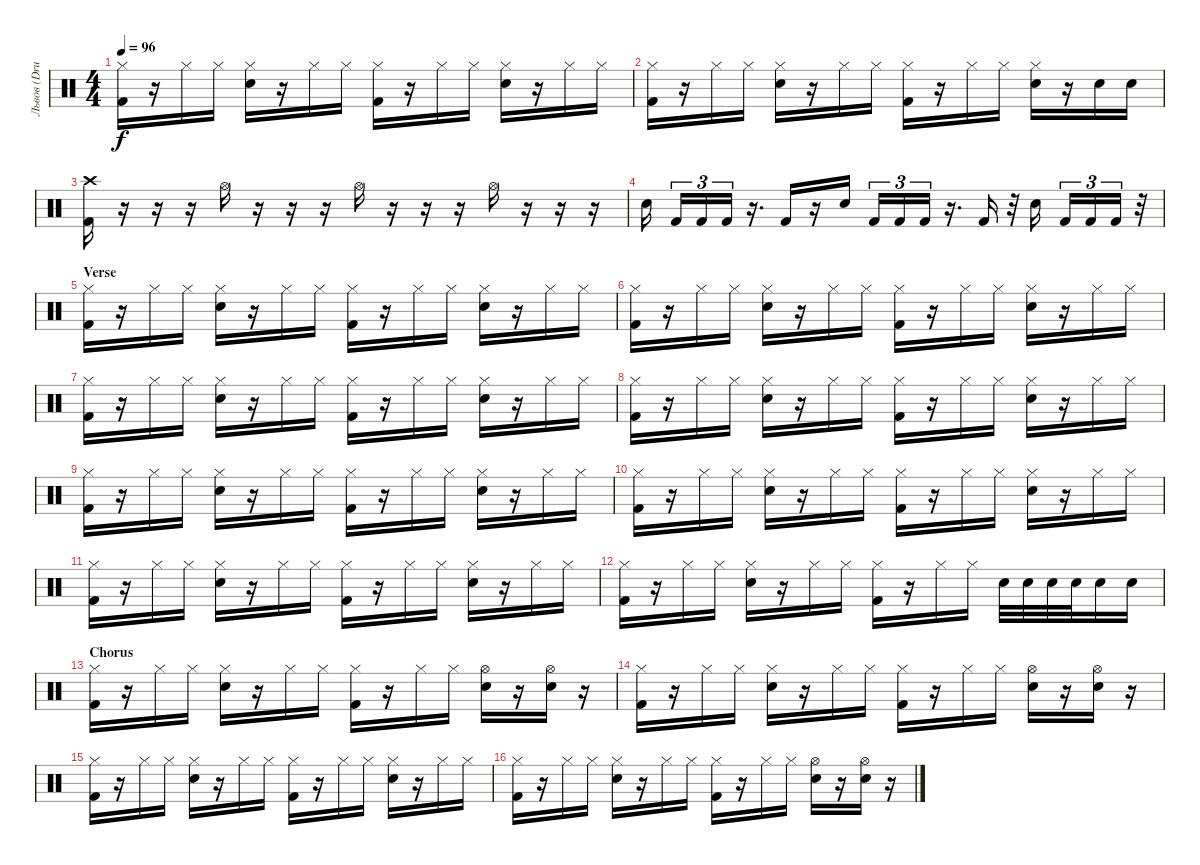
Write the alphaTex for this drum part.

\track ("Львов (Drums)" "Львов (Dru") {instrument percussion}
\staff {score}
\articulation defaults
\ts (4 4)
\tempo 96
\clef neutral
\ks c
("Kick (hit) 2" "Hi-Hat (closed)").16{dy f} r.16 "Hi-Hat (closed)".16 "Hi-Hat (closed)".16 ("Electric Snare (hit)" "Hi-Hat (closed)").16 r.16 "Hi-Hat (closed)".16 "Hi-Hat (closed)".16 ("Kick (hit) 2" "Hi-Hat (closed)").16 r.16 "Hi-Hat (closed)".16 "Hi-Hat (closed)".16 ("Electric Snare (hit)" "Hi-Hat (closed)").16 r.16 "Hi-Hat (closed)".16 "Hi-Hat (closed)".16 |
("Kick (hit) 2" "Hi-Hat (closed)").16 r.16 "Hi-Hat (closed)".16 "Hi-Hat (closed)".16 ("Electric Snare (hit)" "Hi-Hat (closed)").16 r.16 "Hi-Hat (closed)".16 "Hi-Hat (closed)".16 ("Kick (hit) 2" "Hi-Hat (closed)").16 r.16 "Hi-Hat (closed)".16 "Hi-Hat (closed)".16 ("Electric Snare (hit)" "Hi-Hat (closed)").16 r.16 "Electric Snare (hit)".16 "Electric Snare (hit)".16 |
("Kick (hit) 2" "Crash high (hit)").16 r.16 r.16 r.16 "Hi-Hat (open)".16 r.16 r.16 r.16 "Hi-Hat (open)".16 r.16 r.16 r.16 "Hi-Hat (open)".16 r.16 r.16 r.16 |
"Electric Snare (hit)".16 "Kick (hit) 2".16{tu (3 2)} "Kick (hit) 2".16{tu (3 2)} "Kick (hit) 2".16{tu (3 2)} r.16{d} "Kick (hit) 2".16 r.16 "Electric Snare (hit)".16 "Kick (hit) 2".16{tu (3 2)} "Kick (hit) 2".16{tu (3 2)} "Kick (hit) 2".16{tu (3 2)} r.16{d} "Kick (hit) 2".16 r.32 "Electric Snare (hit)".16 "Kick (hit) 2".16{tu (3 2)} "Kick (hit) 2".16{tu (3 2)} "Kick (hit) 2".16{tu (3 2)} r.32 |
\section ("" "Verse")
("Kick (hit) 2" "Hi-Hat (closed)").16 r.16 "Hi-Hat (closed)".16 "Hi-Hat (closed)".16 ("Electric Snare (hit)" "Hi-Hat (closed)").16 r.16 "Hi-Hat (closed)".16 "Hi-Hat (closed)".16 ("Kick (hit) 2" "Hi-Hat (closed)").16 r.16 "Hi-Hat (closed)".16 "Hi-Hat (closed)".16 ("Electric Snare (hit)" "Hi-Hat (closed)").16 r.16 "Hi-Hat (closed)".16 "Hi-Hat (closed)".16 |
("Kick (hit) 2" "Hi-Hat (closed)").16 r.16 "Hi-Hat (closed)".16 "Hi-Hat (closed)".16 ("Electric Snare (hit)" "Hi-Hat (closed)").16 r.16 "Hi-Hat (closed)".16 "Hi-Hat (closed)".16 ("Kick (hit) 2" "Hi-Hat (closed)").16 r.16 "Hi-Hat (closed)".16 "Hi-Hat (closed)".16 ("Electric Snare (hit)" "Hi-Hat (closed)").16 r.16 "Hi-Hat (closed)".16 "Hi-Hat (closed)".16 |
("Kick (hit) 2" "Hi-Hat (closed)").16 r.16 "Hi-Hat (closed)".16 "Hi-Hat (closed)".16 ("Electric Snare (hit)" "Hi-Hat (closed)").16 r.16 "Hi-Hat (closed)".16 "Hi-Hat (closed)".16 ("Kick (hit) 2" "Hi-Hat (closed)").16 r.16 "Hi-Hat (closed)".16 "Hi-Hat (closed)".16 ("Electric Snare (hit)" "Hi-Hat (closed)").16 r.16 "Hi-Hat (closed)".16 "Hi-Hat (closed)".16 |
("Kick (hit) 2" "Hi-Hat (closed)").16 r.16 "Hi-Hat (closed)".16 "Hi-Hat (closed)".16 ("Electric Snare (hit)" "Hi-Hat (closed)").16 r.16 "Hi-Hat (closed)".16 "Hi-Hat (closed)".16 ("Kick (hit) 2" "Hi-Hat (closed)").16 r.16 "Hi-Hat (closed)".16 "Hi-Hat (closed)".16 ("Electric Snare (hit)" "Hi-Hat (closed)").16 r.16 "Hi-Hat (closed)".16 "Hi-Hat (closed)".16 |
("Kick (hit) 2" "Hi-Hat (closed)").16 r.16 "Hi-Hat (closed)".16 "Hi-Hat (closed)".16 ("Electric Snare (hit)" "Hi-Hat (closed)").16 r.16 "Hi-Hat (closed)".16 "Hi-Hat (closed)".16 ("Kick (hit) 2" "Hi-Hat (closed)").16 r.16 "Hi-Hat (closed)".16 "Hi-Hat (closed)".16 ("Electric Snare (hit)" "Hi-Hat (closed)").16 r.16 "Hi-Hat (closed)".16 "Hi-Hat (closed)".16 |
("Kick (hit) 2" "Hi-Hat (closed)").16 r.16 "Hi-Hat (closed)".16 "Hi-Hat (closed)".16 ("Electric Snare (hit)" "Hi-Hat (closed)").16 r.16 "Hi-Hat (closed)".16 "Hi-Hat (closed)".16 ("Kick (hit) 2" "Hi-Hat (closed)").16 r.16 "Hi-Hat (closed)".16 "Hi-Hat (closed)".16 ("Electric Snare (hit)" "Hi-Hat (closed)").16 r.16 "Hi-Hat (closed)".16 "Hi-Hat (closed)".16 |
("Kick (hit) 2" "Hi-Hat (closed)").16 r.16 "Hi-Hat (closed)".16 "Hi-Hat (closed)".16 ("Electric Snare (hit)" "Hi-Hat (closed)").16 r.16 "Hi-Hat (closed)".16 "Hi-Hat (closed)".16 ("Kick (hit) 2" "Hi-Hat (closed)").16 r.16 "Hi-Hat (closed)".16 "Hi-Hat (closed)".16 ("Electric Snare (hit)" "Hi-Hat (closed)").16 r.16 "Hi-Hat (closed)".16 "Hi-Hat (closed)".16 |
("Kick (hit) 2" "Hi-Hat (closed)").16 r.16 "Hi-Hat (closed)".16 "Hi-Hat (closed)".16 ("Electric Snare (hit)" "Hi-Hat (closed)").16 r.16 "Hi-Hat (closed)".16 "Hi-Hat (closed)".16 ("Kick (hit) 2" "Hi-Hat (closed)").16 r.16 "Hi-Hat (closed)".16 "Hi-Hat (closed)".16 "Electric Snare (hit)".32 "Electric Snare (hit)".32 "Electric Snare (hit)".32 "Electric Snare (hit)".32 "Electric Snare (hit)".16 "Electric Snare (hit)".16 |
\section ("" "Chorus")
("Kick (hit) 2" "Hi-Hat (closed)").16 r.16 "Hi-Hat (closed)".16 "Hi-Hat (closed)".16 ("Electric Snare (hit)" "Hi-Hat (closed)").16 r.16 "Hi-Hat (closed)".16 "Hi-Hat (closed)".16 ("Kick (hit) 2" "Hi-Hat (closed)").16 r.16 "Hi-Hat (closed)".16 "Hi-Hat (closed)".16 ("Electric Snare (hit)" "Hi-Hat (open)").16 r.16 ("Electric Snare (hit)" "Hi-Hat (open)").16 r.16 |
("Kick (hit) 2" "Hi-Hat (closed)").16 r.16 "Hi-Hat (closed)".16 "Hi-Hat (closed)".16 ("Electric Snare (hit)" "Hi-Hat (closed)").16 r.16 "Hi-Hat (closed)".16 "Hi-Hat (closed)".16 ("Kick (hit) 2" "Hi-Hat (closed)").16 r.16 "Hi-Hat (closed)".16 "Hi-Hat (closed)".16 ("Electric Snare (hit)" "Hi-Hat (open)").16 r.16 ("Electric Snare (hit)" "Hi-Hat (open)").16 r.16 |
("Kick (hit) 2" "Hi-Hat (closed)").16 r.16 "Hi-Hat (closed)".16 "Hi-Hat (closed)".16 ("Electric Snare (hit)" "Hi-Hat (closed)").16 r.16 "Hi-Hat (closed)".16 "Hi-Hat (closed)".16 ("Kick (hit) 2" "Hi-Hat (closed)").16 r.16 "Hi-Hat (closed)".16 "Hi-Hat (closed)".16 ("Electric Snare (hit)" "Hi-Hat (closed)").16 r.16 "Hi-Hat (closed)".16 "Hi-Hat (closed)".16 |
("Kick (hit) 2" "Hi-Hat (closed)").16 r.16 "Hi-Hat (closed)".16 "Hi-Hat (closed)".16 ("Electric Snare (hit)" "Hi-Hat (closed)").16 r.16 "Hi-Hat (closed)".16 "Hi-Hat (closed)".16 ("Kick (hit) 2" "Hi-Hat (closed)").16 r.16 "Hi-Hat (closed)".16 "Hi-Hat (closed)".16 ("Electric Snare (hit)" "Hi-Hat (open)").16 r.16 ("Electric Snare (hit)" "Hi-Hat (open)").16 r.16
